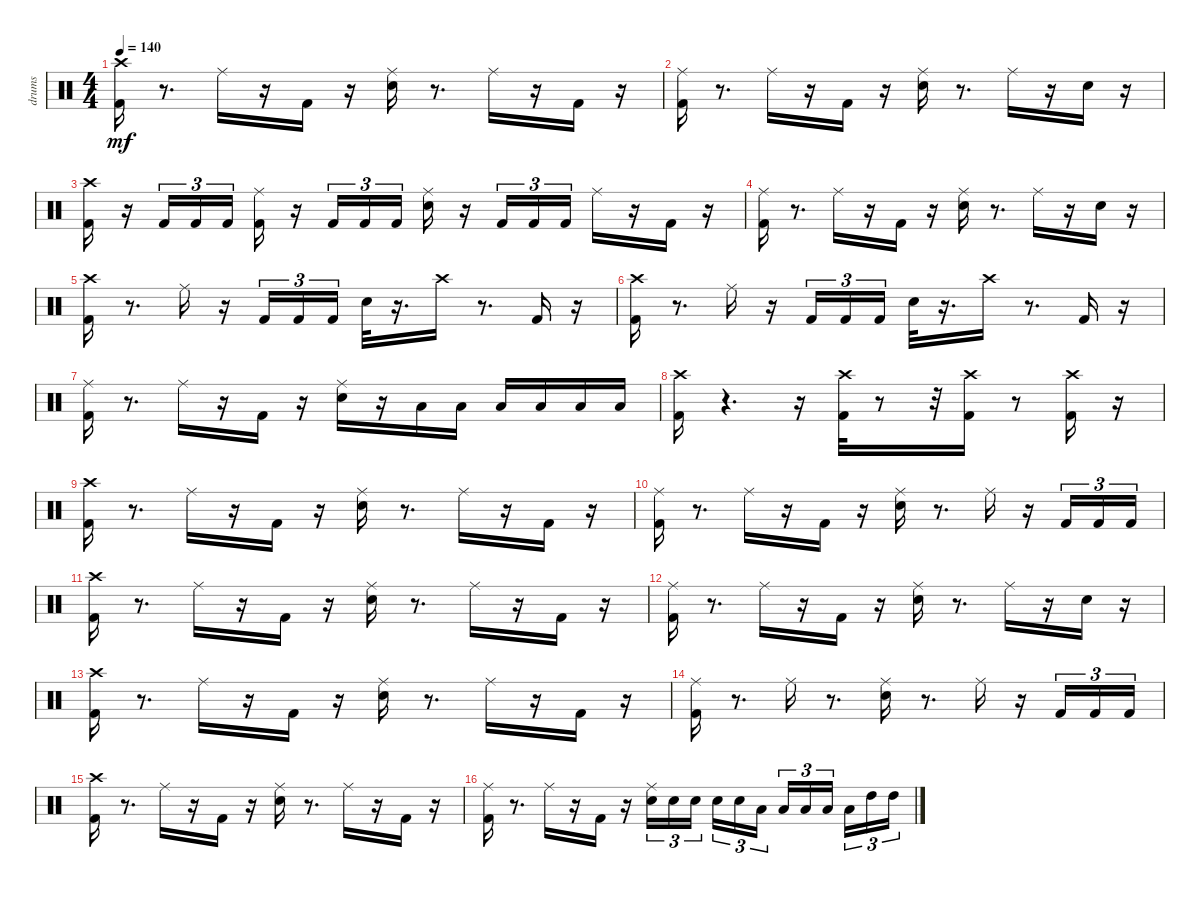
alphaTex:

\track ("drums               " "drums     ") {instrument percussion}
\staff {score}
\articulation defaults
\ts (4 4)
\tempo 140
\clef neutral
\ks c
("Kick (hit) 2" "Crash high (hit)").16{dy mf} r.8{d} "Ride (middle)".16 r.16 "Kick (hit) 2".16 r.16 ("Ride (middle)" "Snare (hit) 2").16 r.8{d} "Ride (middle)".16 r.16 "Kick (hit) 2".16 r.16 |
("Kick (hit) 2" "Ride (middle)").16 r.8{d} "Ride (middle)".16 r.16 "Kick (hit) 2".16 r.16 ("Ride (middle)" "Snare (hit) 2").16 r.8{d} "Ride (middle)".16 r.16 "Snare (hit) 2".16 r.16 |
("Crash high (hit)" "Kick (hit) 2").16 r.16 "Kick (hit) 2".16{tu (3 2)} "Kick (hit) 2".16{tu (3 2)} "Kick (hit) 2".16{tu (3 2)} ("Ride (middle)" "Kick (hit) 2").16 r.16 "Kick (hit) 2".16{tu (3 2)} "Kick (hit) 2".16{tu (3 2)} "Kick (hit) 2".16{tu (3 2)} ("Ride (middle)" "Snare (hit) 2").16 r.16 "Kick (hit) 2".16{tu (3 2)} "Kick (hit) 2".16{tu (3 2)} "Kick (hit) 2".16{tu (3 2)} "Ride (middle)".16 r.16 "Kick (hit) 2".16 r.16 |
("Kick (hit) 2" "Ride (middle)").16 r.8{d} "Ride (middle)".16 r.16 "Kick (hit) 2".16 r.16 ("Ride (middle)" "Snare (hit) 2").16 r.8{d} "Ride (middle)".16 r.16 "Snare (hit) 2".16 r.16 |
("Kick (hit) 2" "Crash high (hit)").16 r.8{d} "Ride (middle)".16 r.16 "Kick (hit) 2".16{tu (3 2)} "Kick (hit) 2".16{tu (3 2)} "Kick (hit) 2".16{tu (3 2)} "Snare (hit) 2".32 r.16{d} "Crash high (hit)".16 r.8{d} "Kick (hit) 2".16 r.16 |
("Kick (hit) 2" "Crash high (hit)").16 r.8{d} "Ride (middle)".16 r.16 "Kick (hit) 2".16{tu (3 2)} "Kick (hit) 2".16{tu (3 2)} "Kick (hit) 2".16{tu (3 2)} "Snare (hit) 2".32 r.16{d} "Crash high (hit)".16 r.8{d} "Kick (hit) 2".16 r.16 |
("Kick (hit) 2" "Ride (middle)").16 r.8{d} "Ride (middle)".16 r.16 "Kick (hit) 2".16 r.16 ("Snare (hit) 2" "Ride (middle)").16 r.16 "Low Tom (hit)".16 "Low Tom (hit)".16 "Low Tom (hit)".16 "Low Floor Tom (hit)".16 "Low Floor Tom (hit)".16 "Low Floor Tom (hit)".16 |
("Kick (hit) 2" "Crash high (hit)").16 r.4{d} r.16 ("Crash high (hit)" "Kick (hit) 2").32 r.8 r.32 ("Kick (hit) 2" "Crash high (hit)").16 r.8 ("Kick (hit) 2" "Crash high (hit)").16 r.16 |
("Kick (hit) 2" "Crash high (hit)").16 r.8{d} "Ride (middle)".16 r.16 "Kick (hit) 2".16 r.16 ("Ride (middle)" "Snare (hit) 2").16 r.8{d} "Ride (middle)".16 r.16 "Kick (hit) 2".16 r.16 |
("Kick (hit) 2" "Ride (middle)").16 r.8{d} "Ride (middle)".16 r.16 "Kick (hit) 2".16 r.16 ("Ride (middle)" "Snare (hit) 2").16 r.8{d} "Ride (middle)".16 r.16 "Kick (hit) 2".16{tu (3 2)} "Kick (hit) 2".16{tu (3 2)} "Kick (hit) 2".16{tu (3 2)} |
("Kick (hit) 2" "Crash high (hit)").16 r.8{d} "Ride (middle)".16 r.16 "Kick (hit) 2".16 r.16 ("Ride (middle)" "Snare (hit) 2").16 r.8{d} "Ride (middle)".16 r.16 "Kick (hit) 2".16 r.16 |
("Kick (hit) 2" "Ride (middle)").16 r.8{d} "Ride (middle)".16 r.16 "Kick (hit) 2".16 r.16 ("Ride (middle)" "Snare (hit) 2").16 r.8{d} "Ride (middle)".16 r.16 "Snare (hit) 2".16 r.16 |
("Kick (hit) 2" "Crash high (hit)").16 r.8{d} "Ride (middle)".16 r.16 "Kick (hit) 2".16 r.16 ("Ride (middle)" "Snare (hit) 2").16 r.8{d} "Ride (middle)".16 r.16 "Kick (hit) 2".16 r.16 |
("Kick (hit) 2" "Ride (middle)").16 r.8{d} "Ride (middle)".16 r.8{d} ("Ride (middle)" "Snare (hit) 2").16 r.8{d} "Ride (middle)".16 r.16 "Kick (hit) 2".16{tu (3 2)} "Kick (hit) 2".16{tu (3 2)} "Kick (hit) 2".16{tu (3 2)} |
("Kick (hit) 2" "Crash high (hit)").16 r.8{d} "Ride (middle)".16 r.16 "Kick (hit) 2".16 r.16 ("Ride (middle)" "Snare (hit) 2").16 r.8{d} "Ride (middle)".16 r.16 "Kick (hit) 2".16 r.16 |
("Kick (hit) 2" "Ride (middle)").16 r.8{d} "Ride (middle)".16 r.16 "Kick (hit) 2".16 r.16 ("Ride (middle)" "Snare (hit) 2").16{tu (3 2)} "Snare (hit) 2".16{tu (3 2)} "Snare (hit) 2".16{tu (3 2)} "Snare (hit) 2".16{tu (3 2)} "Snare (hit) 2".16{tu (3 2)} "Low Tom (hit)".16{tu (3 2)} "Low Tom (hit)".16{tu (3 2)} "Low Tom (hit)".16{tu (3 2)} "Low Tom (hit)".16{tu (3 2)} "Low Tom (hit)".16{tu (3 2)} "High Tom (hit)".16{tu (3 2)} "High Tom (hit)".16{tu (3 2)}
